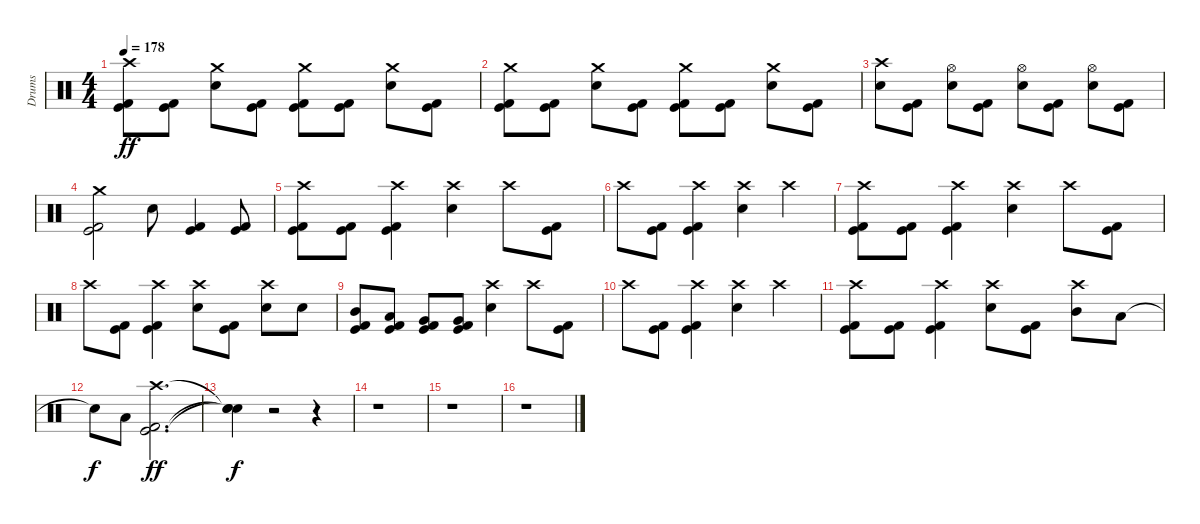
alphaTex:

\track ("Drums" "Drums") {instrument percussion}
\staff {score}
\articulation defaults
\ts (4 4)
\tempo 178
\clef neutral
\ks c
("Kick (hit)" "Kick (hit) 2" "Crash high (hit)").8{dy ff} ("Kick (hit)" "Kick (hit) 2").8 ("Electric Snare (hit)" "Crash medium (hit)").8 ("Kick (hit)" "Kick (hit) 2").8 ("Kick (hit)" "Kick (hit) 2" "Crash medium (hit)").8 ("Kick (hit)" "Kick (hit) 2").8 ("Electric Snare (hit)" "Crash medium (hit)").8 ("Kick (hit)" "Kick (hit) 2").8 |
("Kick (hit)" "Kick (hit) 2" "Crash medium (hit)").8 ("Kick (hit)" "Kick (hit) 2").8 ("Electric Snare (hit)" "Crash medium (hit)").8 ("Kick (hit)" "Kick (hit) 2").8 ("Kick (hit)" "Kick (hit) 2" "Crash medium (hit)").8 ("Kick (hit)" "Kick (hit) 2").8 ("Electric Snare (hit)" "Crash medium (hit)").8 ("Kick (hit)" "Kick (hit) 2").8 |
("Electric Snare (hit)" "Crash high (hit)").8 ("Kick (hit)" "Kick (hit) 2").8 ("Electric Snare (hit)" "Hi-Hat (open)").8 ("Kick (hit)" "Kick (hit) 2").8 ("Electric Snare (hit)" "Hi-Hat (open)").8 ("Kick (hit)" "Kick (hit) 2").8 ("Electric Snare (hit)" "Hi-Hat (open)").8 ("Kick (hit)" "Kick (hit) 2").8 |
("Kick (hit)" "Kick (hit) 2" "Crash medium (hit)").2 "Electric Snare (hit)".8 ("Kick (hit)" "Kick (hit) 2").4 ("Kick (hit)" "Kick (hit) 2").8 |
("Kick (hit)" "Kick (hit) 2" "Crash high (hit)").8 ("Kick (hit)" "Kick (hit) 2").8 ("Kick (hit)" "Kick (hit) 2" "Crash high (hit)").4 ("Electric Snare (hit)" "Crash high (hit)").4 "Crash high (hit)".8 ("Kick (hit)" "Kick (hit) 2").8 |
"Crash high (hit)".8 ("Kick (hit)" "Kick (hit) 2").8 ("Kick (hit)" "Kick (hit) 2" "Crash high (hit)").4 ("Electric Snare (hit)" "Crash high (hit)").4 "Crash high (hit)".4 |
("Kick (hit)" "Kick (hit) 2" "Crash high (hit)").8 ("Kick (hit)" "Kick (hit) 2").8 ("Kick (hit)" "Kick (hit) 2" "Crash high (hit)").4 ("Electric Snare (hit)" "Crash high (hit)").4 "Crash high (hit)".8 ("Kick (hit)" "Kick (hit) 2").8 |
"Crash high (hit)".8 ("Kick (hit)" "Kick (hit) 2").8 ("Kick (hit)" "Kick (hit) 2" "Crash high (hit)").4 ("Electric Snare (hit)" "Crash high (hit)").8 ("Kick (hit)" "Kick (hit) 2").8 ("Electric Snare (hit)" "Crash high (hit)").8 "Electric Snare (hit)".8 |
("Kick (hit)" "Kick (hit) 2" "Mid Tom (hit)").8 ("Kick (hit)" "Kick (hit) 2" "Low Tom (hit)").8 ("Kick (hit)" "Kick (hit) 2" "Very Low Tom (hit)").8 ("Kick (hit)" "Kick (hit) 2" "Very Low Tom (hit)").8 ("Electric Snare (hit)" "Crash high (hit)").4 "Crash high (hit)".8 ("Kick (hit)" "Kick (hit) 2").8 |
"Crash high (hit)".8 ("Kick (hit)" "Kick (hit) 2").8 ("Kick (hit)" "Kick (hit) 2" "Crash high (hit)").4 ("Electric Snare (hit)" "Crash high (hit)").4 "Crash high (hit)".4 |
("Kick (hit)" "Kick (hit) 2" "Crash high (hit)").8 ("Kick (hit)" "Kick (hit) 2").8 ("Kick (hit)" "Kick (hit) 2" "Crash high (hit)").4 ("Electric Snare (hit)" "Crash high (hit)").8 ("Kick (hit)" "Kick (hit) 2").8 ("Mid Tom (hit)" "Crash high (hit)").8 "Low Tom (hit)".8 |
"Snare (hit)"{t}.8{dy f} "Low Tom (hit)".8 ("Kick (hit)" "Kick (hit) 2" "Crash high (hit)").2{d dy ff} |
("Snare (hit)"{t} "Snare (hit)"{t} "Snare (hit)"{t}).4{dy f} r.2 r.4 |
r.1 |
r.1 |
r.1
